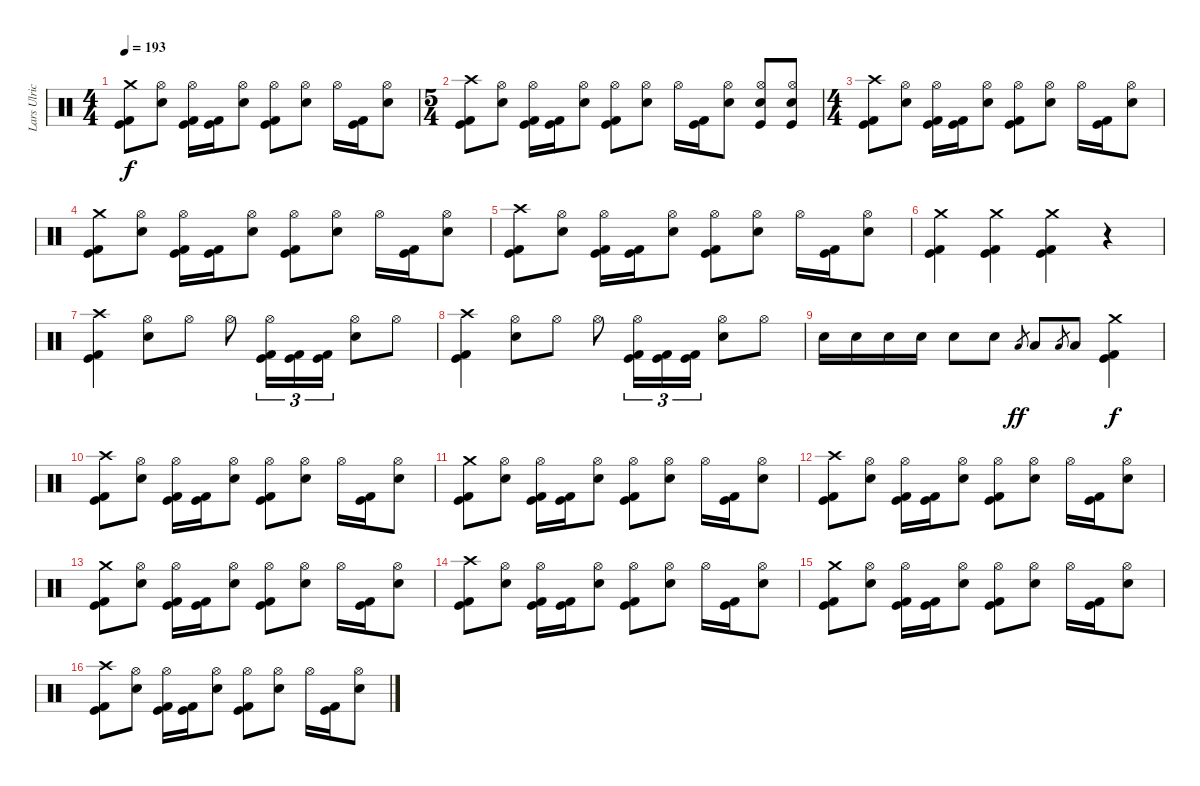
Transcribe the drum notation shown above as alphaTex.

\track ("Lars Ulrich" "Lars Ulric") {instrument percussion}
\staff {score}
\articulation defaults
\ts (4 4)
\tempo 193
\clef neutral
\ks c
("Crash medium (hit)" "Kick (hit) 2" "Kick (hit)").8{dy f} ("Hi-Hat (open)" "Electric Snare (hit)").8 ("Hi-Hat (open)" "Kick (hit) 2" "Kick (hit)").16 ("Kick (hit) 2" "Kick (hit)").16 ("Hi-Hat (open)" "Electric Snare (hit)").8 ("Hi-Hat (open)" "Kick (hit) 2" "Kick (hit)").8 ("Hi-Hat (open)" "Electric Snare (hit)").8 "Hi-Hat (open)".16 ("Kick (hit) 2" "Kick (hit)").16 ("Hi-Hat (open)" "Electric Snare (hit)").8 |
\ts (5 4)
("Crash high (hit)" "Kick (hit) 2" "Kick (hit)").8 ("Hi-Hat (open)" "Electric Snare (hit)").8 ("Hi-Hat (open)" "Kick (hit) 2" "Kick (hit)").16 ("Kick (hit) 2" "Kick (hit)").16 ("Hi-Hat (open)" "Electric Snare (hit)").8 ("Hi-Hat (open)" "Kick (hit) 2" "Kick (hit)").8 ("Hi-Hat (open)" "Electric Snare (hit)").8 "Hi-Hat (open)".16 ("Kick (hit) 2" "Kick (hit)").16 ("Hi-Hat (open)" "Electric Snare (hit)").8 ("Hi-Hat (open)" "Electric Snare (hit)" "Kick (hit)").8 ("Hi-Hat (open)" "Electric Snare (hit)" "Kick (hit)").8 |
\ts (4 4)
("Crash high (hit)" "Kick (hit) 2" "Kick (hit)").8 ("Hi-Hat (open)" "Electric Snare (hit)").8 ("Hi-Hat (open)" "Kick (hit) 2" "Kick (hit)").16 ("Kick (hit) 2" "Kick (hit)").16 ("Hi-Hat (open)" "Electric Snare (hit)").8 ("Hi-Hat (open)" "Kick (hit) 2" "Kick (hit)").8 ("Hi-Hat (open)" "Electric Snare (hit)").8 "Hi-Hat (open)".16 ("Kick (hit) 2" "Kick (hit)").16 ("Hi-Hat (open)" "Electric Snare (hit)").8 |
("Crash medium (hit)" "Kick (hit) 2" "Kick (hit)").8 ("Hi-Hat (open)" "Electric Snare (hit)").8 ("Hi-Hat (open)" "Kick (hit) 2" "Kick (hit)").16 ("Kick (hit) 2" "Kick (hit)").16 ("Hi-Hat (open)" "Electric Snare (hit)").8 ("Hi-Hat (open)" "Kick (hit) 2" "Kick (hit)").8 ("Hi-Hat (open)" "Electric Snare (hit)").8 "Hi-Hat (open)".16 ("Kick (hit) 2" "Kick (hit)").16 ("Hi-Hat (open)" "Electric Snare (hit)").8 |
("Crash high (hit)" "Kick (hit) 2" "Kick (hit)").8 ("Hi-Hat (open)" "Electric Snare (hit)").8 ("Hi-Hat (open)" "Kick (hit) 2" "Kick (hit)").16 ("Kick (hit) 2" "Kick (hit)").16 ("Hi-Hat (open)" "Electric Snare (hit)").8 ("Hi-Hat (open)" "Kick (hit) 2" "Kick (hit)").8 ("Hi-Hat (open)" "Electric Snare (hit)").8 "Hi-Hat (open)".16 ("Kick (hit) 2" "Kick (hit)").16 ("Hi-Hat (open)" "Electric Snare (hit)").8 |
("Crash medium (hit)" "Kick (hit) 2" "Kick (hit)").4 ("Crash medium (hit)" "Kick (hit) 2" "Kick (hit)").4 ("Crash medium (hit)" "Kick (hit) 2" "Kick (hit)").4 r.4 |
("Crash high (hit)" "Kick (hit) 2" "Kick (hit)").4 ("Hi-Hat (open)" "Electric Snare (hit)").8 "Hi-Hat (open)".8 "Hi-Hat (open)".8 ("Hi-Hat (open)" "Kick (hit) 2" "Kick (hit)").16{tu (3 2)} ("Kick (hit) 2" "Kick (hit)").16{tu (3 2)} ("Kick (hit) 2" "Kick (hit)").16{tu (3 2)} ("Hi-Hat (open)" "Electric Snare (hit)").8 "Hi-Hat (open)".8 |
("Crash high (hit)" "Kick (hit) 2" "Kick (hit)").4 ("Hi-Hat (open)" "Electric Snare (hit)").8 "Hi-Hat (open)".8 "Hi-Hat (open)".8 ("Hi-Hat (open)" "Kick (hit) 2" "Kick (hit)").16{tu (3 2)} ("Kick (hit) 2" "Kick (hit)").16{tu (3 2)} ("Kick (hit) 2" "Kick (hit)").16{tu (3 2)} ("Hi-Hat (open)" "Electric Snare (hit)").8 "Hi-Hat (open)".8 |
"Electric Snare (hit)".16 "Electric Snare (hit)".16 "Electric Snare (hit)".16 "Electric Snare (hit)".16 "Electric Snare (hit)".8 "Electric Snare (hit)".8 "Low Tom (hit)".8{gr dy ff} "Low Tom (hit)".8 "Low Tom (hit)".8{gr} "Low Tom (hit)".8 ("Crash medium (hit)" "Kick (hit) 2" "Kick (hit)").4{dy f} |
("Crash high (hit)" "Kick (hit) 2" "Kick (hit)").8 ("Hi-Hat (open)" "Electric Snare (hit)").8 ("Hi-Hat (open)" "Kick (hit) 2" "Kick (hit)").16 ("Kick (hit) 2" "Kick (hit)").16 ("Hi-Hat (open)" "Electric Snare (hit)").8 ("Hi-Hat (open)" "Kick (hit) 2" "Kick (hit)").8 ("Hi-Hat (open)" "Electric Snare (hit)").8 "Hi-Hat (open)".16 ("Kick (hit) 2" "Kick (hit)").16 ("Hi-Hat (open)" "Electric Snare (hit)").8 |
("Crash medium (hit)" "Kick (hit) 2" "Kick (hit)").8 ("Hi-Hat (open)" "Electric Snare (hit)").8 ("Hi-Hat (open)" "Kick (hit) 2" "Kick (hit)").16 ("Kick (hit) 2" "Kick (hit)").16 ("Hi-Hat (open)" "Electric Snare (hit)").8 ("Hi-Hat (open)" "Kick (hit) 2" "Kick (hit)").8 ("Hi-Hat (open)" "Electric Snare (hit)").8 "Hi-Hat (open)".16 ("Kick (hit) 2" "Kick (hit)").16 ("Hi-Hat (open)" "Electric Snare (hit)").8 |
("Crash high (hit)" "Kick (hit) 2" "Kick (hit)").8 ("Hi-Hat (open)" "Electric Snare (hit)").8 ("Hi-Hat (open)" "Kick (hit) 2" "Kick (hit)").16 ("Kick (hit) 2" "Kick (hit)").16 ("Hi-Hat (open)" "Electric Snare (hit)").8 ("Hi-Hat (open)" "Kick (hit) 2" "Kick (hit)").8 ("Hi-Hat (open)" "Electric Snare (hit)").8 "Hi-Hat (open)".16 ("Kick (hit) 2" "Kick (hit)").16 ("Hi-Hat (open)" "Electric Snare (hit)").8 |
("Crash medium (hit)" "Kick (hit) 2" "Kick (hit)").8 ("Hi-Hat (open)" "Electric Snare (hit)").8 ("Hi-Hat (open)" "Kick (hit) 2" "Kick (hit)").16 ("Kick (hit) 2" "Kick (hit)").16 ("Hi-Hat (open)" "Electric Snare (hit)").8 ("Hi-Hat (open)" "Kick (hit) 2" "Kick (hit)").8 ("Hi-Hat (open)" "Electric Snare (hit)").8 "Hi-Hat (open)".16 ("Kick (hit) 2" "Kick (hit)").16 ("Hi-Hat (open)" "Electric Snare (hit)").8 |
("Crash high (hit)" "Kick (hit) 2" "Kick (hit)").8 ("Hi-Hat (open)" "Electric Snare (hit)").8 ("Hi-Hat (open)" "Kick (hit) 2" "Kick (hit)").16 ("Kick (hit) 2" "Kick (hit)").16 ("Hi-Hat (open)" "Electric Snare (hit)").8 ("Hi-Hat (open)" "Kick (hit) 2" "Kick (hit)").8 ("Hi-Hat (open)" "Electric Snare (hit)").8 "Hi-Hat (open)".16 ("Kick (hit) 2" "Kick (hit)").16 ("Hi-Hat (open)" "Electric Snare (hit)").8 |
("Crash medium (hit)" "Kick (hit) 2" "Kick (hit)").8 ("Hi-Hat (open)" "Electric Snare (hit)").8 ("Hi-Hat (open)" "Kick (hit) 2" "Kick (hit)").16 ("Kick (hit) 2" "Kick (hit)").16 ("Hi-Hat (open)" "Electric Snare (hit)").8 ("Hi-Hat (open)" "Kick (hit) 2" "Kick (hit)").8 ("Hi-Hat (open)" "Electric Snare (hit)").8 "Hi-Hat (open)".16 ("Kick (hit) 2" "Kick (hit)").16 ("Hi-Hat (open)" "Electric Snare (hit)").8 |
("Crash high (hit)" "Kick (hit) 2" "Kick (hit)").8 ("Hi-Hat (open)" "Electric Snare (hit)").8 ("Hi-Hat (open)" "Kick (hit) 2" "Kick (hit)").16 ("Kick (hit) 2" "Kick (hit)").16 ("Hi-Hat (open)" "Electric Snare (hit)").8 ("Hi-Hat (open)" "Kick (hit) 2" "Kick (hit)").8 ("Hi-Hat (open)" "Electric Snare (hit)").8 "Hi-Hat (open)".16 ("Kick (hit) 2" "Kick (hit)").16 ("Hi-Hat (open)" "Electric Snare (hit)").8
